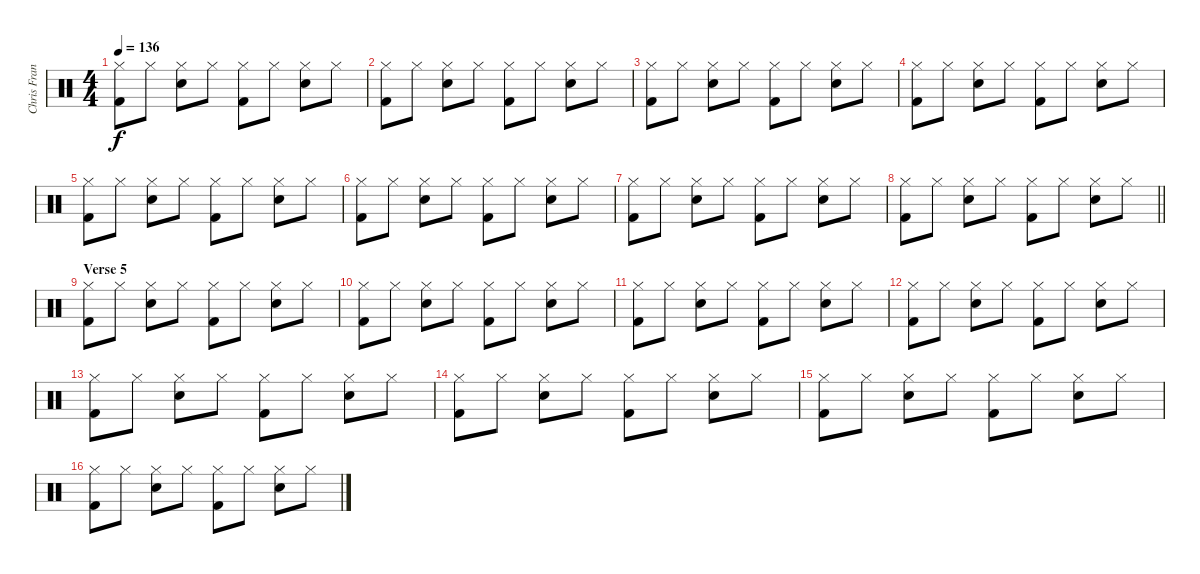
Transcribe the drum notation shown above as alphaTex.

\track ("Chris Frantz" "Chris Fran") {instrument percussion}
\staff {score}
\articulation defaults
\ts (4 4)
\tempo 136
\clef neutral
\ks c
("Hi-Hat (closed)" "Kick (hit) 2").8{dy f} "Hi-Hat (closed)".8 ("Hi-Hat (closed)" "Electric Snare (hit)").8 "Hi-Hat (closed)".8 ("Hi-Hat (closed)" "Kick (hit) 2").8 "Hi-Hat (closed)".8 ("Hi-Hat (closed)" "Electric Snare (hit)").8 "Hi-Hat (closed)".8 |
("Hi-Hat (closed)" "Kick (hit) 2").8 "Hi-Hat (closed)".8 ("Hi-Hat (closed)" "Electric Snare (hit)").8 "Hi-Hat (closed)".8 ("Hi-Hat (closed)" "Kick (hit) 2").8 "Hi-Hat (closed)".8 ("Hi-Hat (closed)" "Electric Snare (hit)").8 "Hi-Hat (closed)".8 |
("Hi-Hat (closed)" "Kick (hit) 2").8 "Hi-Hat (closed)".8 ("Hi-Hat (closed)" "Electric Snare (hit)").8 "Hi-Hat (closed)".8 ("Hi-Hat (closed)" "Kick (hit) 2").8 "Hi-Hat (closed)".8 ("Hi-Hat (closed)" "Electric Snare (hit)").8 "Hi-Hat (closed)".8 |
("Hi-Hat (closed)" "Kick (hit) 2").8 "Hi-Hat (closed)".8 ("Hi-Hat (closed)" "Electric Snare (hit)").8 "Hi-Hat (closed)".8 ("Hi-Hat (closed)" "Kick (hit) 2").8 "Hi-Hat (closed)".8 ("Hi-Hat (closed)" "Electric Snare (hit)").8 "Hi-Hat (closed)".8 |
("Hi-Hat (closed)" "Kick (hit) 2").8 "Hi-Hat (closed)".8 ("Hi-Hat (closed)" "Electric Snare (hit)").8 "Hi-Hat (closed)".8 ("Hi-Hat (closed)" "Kick (hit) 2").8 "Hi-Hat (closed)".8 ("Hi-Hat (closed)" "Electric Snare (hit)").8 "Hi-Hat (closed)".8 |
("Hi-Hat (closed)" "Kick (hit) 2").8 "Hi-Hat (closed)".8 ("Hi-Hat (closed)" "Electric Snare (hit)").8 "Hi-Hat (closed)".8 ("Hi-Hat (closed)" "Kick (hit) 2").8 "Hi-Hat (closed)".8 ("Hi-Hat (closed)" "Electric Snare (hit)").8 "Hi-Hat (closed)".8 |
("Hi-Hat (closed)" "Kick (hit) 2").8 "Hi-Hat (closed)".8 ("Hi-Hat (closed)" "Electric Snare (hit)").8 "Hi-Hat (closed)".8 ("Hi-Hat (closed)" "Kick (hit) 2").8 "Hi-Hat (closed)".8 ("Hi-Hat (closed)" "Electric Snare (hit)").8 "Hi-Hat (closed)".8 |
\barLineRight lightlight
("Hi-Hat (closed)" "Kick (hit) 2").8 "Hi-Hat (closed)".8 ("Hi-Hat (closed)" "Electric Snare (hit)").8 "Hi-Hat (closed)".8 ("Hi-Hat (closed)" "Kick (hit) 2").8 "Hi-Hat (closed)".8 ("Hi-Hat (closed)" "Electric Snare (hit)").8 "Hi-Hat (closed)".8 |
\section ("" "Verse 5")
("Hi-Hat (closed)" "Kick (hit) 2").8 "Hi-Hat (closed)".8 ("Hi-Hat (closed)" "Electric Snare (hit)").8 "Hi-Hat (closed)".8 ("Hi-Hat (closed)" "Kick (hit) 2").8 "Hi-Hat (closed)".8 ("Hi-Hat (closed)" "Electric Snare (hit)").8 "Hi-Hat (closed)".8 |
("Hi-Hat (closed)" "Kick (hit) 2").8 "Hi-Hat (closed)".8 ("Hi-Hat (closed)" "Electric Snare (hit)").8 "Hi-Hat (closed)".8 ("Hi-Hat (closed)" "Kick (hit) 2").8 "Hi-Hat (closed)".8 ("Hi-Hat (closed)" "Electric Snare (hit)").8 "Hi-Hat (closed)".8 |
("Hi-Hat (closed)" "Kick (hit) 2").8 "Hi-Hat (closed)".8 ("Hi-Hat (closed)" "Electric Snare (hit)").8 "Hi-Hat (closed)".8 ("Hi-Hat (closed)" "Kick (hit) 2").8 "Hi-Hat (closed)".8 ("Hi-Hat (closed)" "Electric Snare (hit)").8 "Hi-Hat (closed)".8 |
("Hi-Hat (closed)" "Kick (hit) 2").8 "Hi-Hat (closed)".8 ("Hi-Hat (closed)" "Electric Snare (hit)").8 "Hi-Hat (closed)".8 ("Hi-Hat (closed)" "Kick (hit) 2").8 "Hi-Hat (closed)".8 ("Hi-Hat (closed)" "Electric Snare (hit)").8 "Hi-Hat (closed)".8 |
("Hi-Hat (closed)" "Kick (hit) 2").8 "Hi-Hat (closed)".8 ("Hi-Hat (closed)" "Electric Snare (hit)").8 "Hi-Hat (closed)".8 ("Hi-Hat (closed)" "Kick (hit) 2").8 "Hi-Hat (closed)".8 ("Hi-Hat (closed)" "Electric Snare (hit)").8 "Hi-Hat (closed)".8 |
("Hi-Hat (closed)" "Kick (hit) 2").8 "Hi-Hat (closed)".8 ("Hi-Hat (closed)" "Electric Snare (hit)").8 "Hi-Hat (closed)".8 ("Hi-Hat (closed)" "Kick (hit) 2").8 "Hi-Hat (closed)".8 ("Hi-Hat (closed)" "Electric Snare (hit)").8 "Hi-Hat (closed)".8 |
("Hi-Hat (closed)" "Kick (hit) 2").8 "Hi-Hat (closed)".8 ("Hi-Hat (closed)" "Electric Snare (hit)").8 "Hi-Hat (closed)".8 ("Hi-Hat (closed)" "Kick (hit) 2").8 "Hi-Hat (closed)".8 ("Hi-Hat (closed)" "Electric Snare (hit)").8 "Hi-Hat (closed)".8 |
("Hi-Hat (closed)" "Kick (hit) 2").8 "Hi-Hat (closed)".8 ("Hi-Hat (closed)" "Electric Snare (hit)").8 "Hi-Hat (closed)".8 ("Hi-Hat (closed)" "Kick (hit) 2").8 "Hi-Hat (closed)".8 ("Hi-Hat (closed)" "Electric Snare (hit)").8 "Hi-Hat (closed)".8
